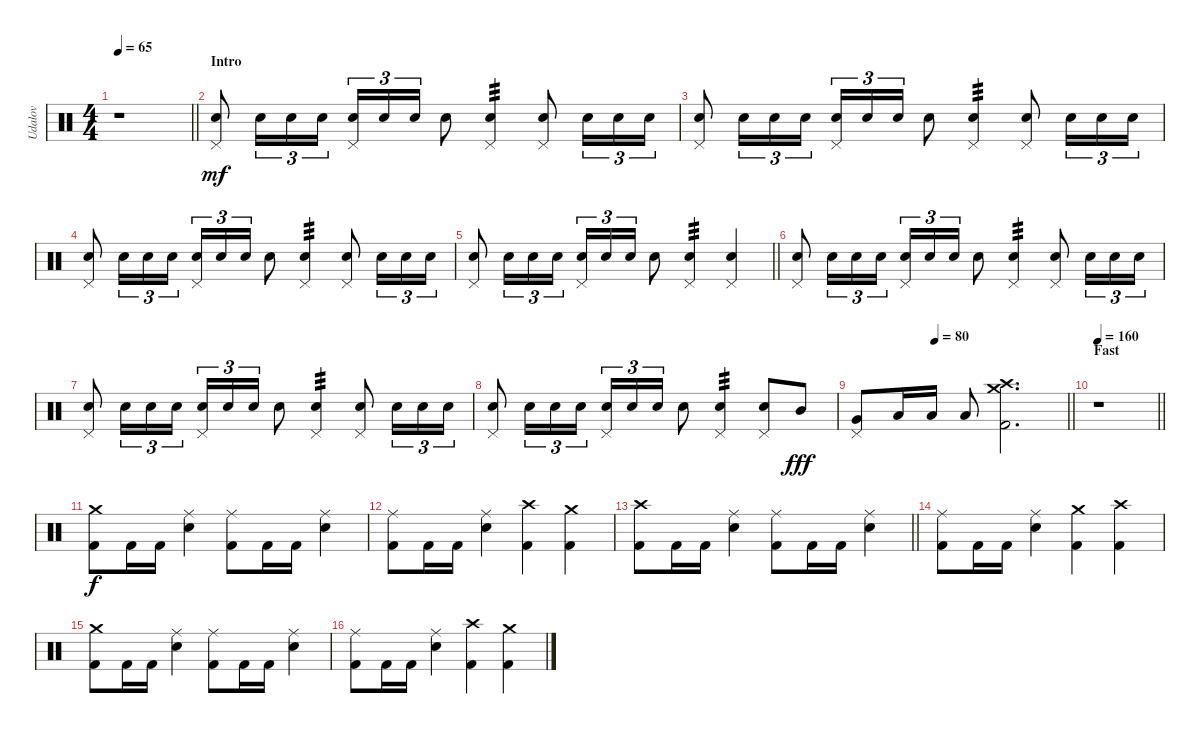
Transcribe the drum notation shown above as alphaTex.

\track ("Udalov" "Udalov") {instrument percussion}
\staff {score}
\articulation defaults
\ts (4 4)
\tempo 65
\clef neutral
\barLineRight lightlight
\ks c
r.1{dy mf} |
\section ("" "Intro")
("Electric Snare (hit)" "Pedal Hi-Hat (hit)").8 "Electric Snare (hit)".16{tu (3 2)} "Electric Snare (hit)".16{tu (3 2)} "Electric Snare (hit)".16{tu (3 2)} ("Electric Snare (hit)" "Pedal Hi-Hat (hit)").16{tu (3 2)} "Electric Snare (hit)".16{tu (3 2)} "Electric Snare (hit)".16{tu (3 2)} "Electric Snare (hit)".8 ("Electric Snare (hit)" "Pedal Hi-Hat (hit)").4{tp 3} ("Electric Snare (hit)" "Pedal Hi-Hat (hit)").8 "Electric Snare (hit)".16{tu (3 2)} "Electric Snare (hit)".16{tu (3 2)} "Electric Snare (hit)".16{tu (3 2)} |
("Electric Snare (hit)" "Pedal Hi-Hat (hit)").8 "Electric Snare (hit)".16{tu (3 2)} "Electric Snare (hit)".16{tu (3 2)} "Electric Snare (hit)".16{tu (3 2)} ("Electric Snare (hit)" "Pedal Hi-Hat (hit)").16{tu (3 2)} "Electric Snare (hit)".16{tu (3 2)} "Electric Snare (hit)".16{tu (3 2)} "Electric Snare (hit)".8 ("Electric Snare (hit)" "Pedal Hi-Hat (hit)").4{tp 3} ("Electric Snare (hit)" "Pedal Hi-Hat (hit)").8 "Electric Snare (hit)".16{tu (3 2)} "Electric Snare (hit)".16{tu (3 2)} "Electric Snare (hit)".16{tu (3 2)} |
("Electric Snare (hit)" "Pedal Hi-Hat (hit)").8 "Electric Snare (hit)".16{tu (3 2)} "Electric Snare (hit)".16{tu (3 2)} "Electric Snare (hit)".16{tu (3 2)} ("Electric Snare (hit)" "Pedal Hi-Hat (hit)").16{tu (3 2)} "Electric Snare (hit)".16{tu (3 2)} "Electric Snare (hit)".16{tu (3 2)} "Electric Snare (hit)".8 ("Electric Snare (hit)" "Pedal Hi-Hat (hit)").4{tp 3} ("Electric Snare (hit)" "Pedal Hi-Hat (hit)").8 "Electric Snare (hit)".16{tu (3 2)} "Electric Snare (hit)".16{tu (3 2)} "Electric Snare (hit)".16{tu (3 2)} |
\barLineRight lightlight
("Electric Snare (hit)" "Pedal Hi-Hat (hit)").8 "Electric Snare (hit)".16{tu (3 2)} "Electric Snare (hit)".16{tu (3 2)} "Electric Snare (hit)".16{tu (3 2)} ("Electric Snare (hit)" "Pedal Hi-Hat (hit)").16{tu (3 2)} "Electric Snare (hit)".16{tu (3 2)} "Electric Snare (hit)".16{tu (3 2)} "Electric Snare (hit)".8 ("Electric Snare (hit)" "Pedal Hi-Hat (hit)").4{tp 3} ("Electric Snare (hit)" "Pedal Hi-Hat (hit)").4 |
("Electric Snare (hit)" "Pedal Hi-Hat (hit)").8 "Electric Snare (hit)".16{tu (3 2)} "Electric Snare (hit)".16{tu (3 2)} "Electric Snare (hit)".16{tu (3 2)} ("Electric Snare (hit)" "Pedal Hi-Hat (hit)").16{tu (3 2)} "Electric Snare (hit)".16{tu (3 2)} "Electric Snare (hit)".16{tu (3 2)} "Electric Snare (hit)".8 ("Electric Snare (hit)" "Pedal Hi-Hat (hit)").4{tp 3} ("Electric Snare (hit)" "Pedal Hi-Hat (hit)").8 "Electric Snare (hit)".16{tu (3 2)} "Electric Snare (hit)".16{tu (3 2)} "Electric Snare (hit)".16{tu (3 2)} |
("Electric Snare (hit)" "Pedal Hi-Hat (hit)").8 "Electric Snare (hit)".16{tu (3 2)} "Electric Snare (hit)".16{tu (3 2)} "Electric Snare (hit)".16{tu (3 2)} ("Electric Snare (hit)" "Pedal Hi-Hat (hit)").16{tu (3 2)} "Electric Snare (hit)".16{tu (3 2)} "Electric Snare (hit)".16{tu (3 2)} "Electric Snare (hit)".8 ("Electric Snare (hit)" "Pedal Hi-Hat (hit)").4{tp 3} ("Electric Snare (hit)" "Pedal Hi-Hat (hit)").8 "Electric Snare (hit)".16{tu (3 2)} "Electric Snare (hit)".16{tu (3 2)} "Electric Snare (hit)".16{tu (3 2)} |
("Electric Snare (hit)" "Pedal Hi-Hat (hit)").8 "Electric Snare (hit)".16{tu (3 2)} "Electric Snare (hit)".16{tu (3 2)} "Electric Snare (hit)".16{tu (3 2)} ("Electric Snare (hit)" "Pedal Hi-Hat (hit)").16{tu (3 2)} "Electric Snare (hit)".16{tu (3 2)} "Electric Snare (hit)".16{tu (3 2)} "Electric Snare (hit)".8 ("Electric Snare (hit)" "Pedal Hi-Hat (hit)").4{tp 3} ("Electric Snare (hit)" "Pedal Hi-Hat (hit)").8 "Mid Tom (hit)".8{dy fff} |
\tempo (80 0.375)
\barLineRight lightlight
("Pedal Hi-Hat (hit)" "Very Low Tom (hit)").8 "Low Floor Tom (hit)".16 "Low Floor Tom (hit)".16 "Low Floor Tom (hit)".8 ("Kick (hit) 2" "Crash high (hit)" "Crash medium (hit)").2{d} |
\section ("" "Fast")
\tempo 160
\barLineRight lightlight
r.1 |
\section ("" "")
("Kick (hit) 2" "Crash medium (hit)").8{dy f} "Kick (hit) 2".16 "Kick (hit) 2".16 ("Snare (hit) 2" "Ride (middle)").4 ("Kick (hit) 2" "Ride (middle)").8 "Kick (hit) 2".16 "Kick (hit) 2".16 ("Snare (hit) 2" "Ride (middle)").4 |
("Kick (hit) 2" "Ride (middle)").8 "Kick (hit) 2".16 "Kick (hit) 2".16 ("Snare (hit) 2" "Ride (middle)").4 ("Kick (hit) 2" "Crash high (hit)").4 ("Kick (hit) 2" "Crash medium (hit)").4 |
\barLineRight lightlight
("Kick (hit) 2" "Crash high (hit)").8 "Kick (hit) 2".16 "Kick (hit) 2".16 ("Snare (hit) 2" "Ride (middle)").4 ("Kick (hit) 2" "Ride (middle)").8 "Kick (hit) 2".16 "Kick (hit) 2".16 ("Snare (hit) 2" "Ride (middle)").4 |
("Kick (hit) 2" "Ride (middle)").8 "Kick (hit) 2".16 "Kick (hit) 2".16 ("Snare (hit) 2" "Ride (middle)").4 ("Kick (hit) 2" "Crash medium (hit)").4 ("Kick (hit) 2" "Crash high (hit)").4 |
("Kick (hit) 2" "Crash medium (hit)").8 "Kick (hit) 2".16 "Kick (hit) 2".16 ("Snare (hit) 2" "Ride (middle)").4 ("Kick (hit) 2" "Ride (middle)").8 "Kick (hit) 2".16 "Kick (hit) 2".16 ("Snare (hit) 2" "Ride (middle)").4 |
("Kick (hit) 2" "Ride (middle)").8 "Kick (hit) 2".16 "Kick (hit) 2".16 ("Snare (hit) 2" "Ride (middle)").4 ("Kick (hit) 2" "Crash high (hit)").4 ("Kick (hit) 2" "Crash medium (hit)").4
